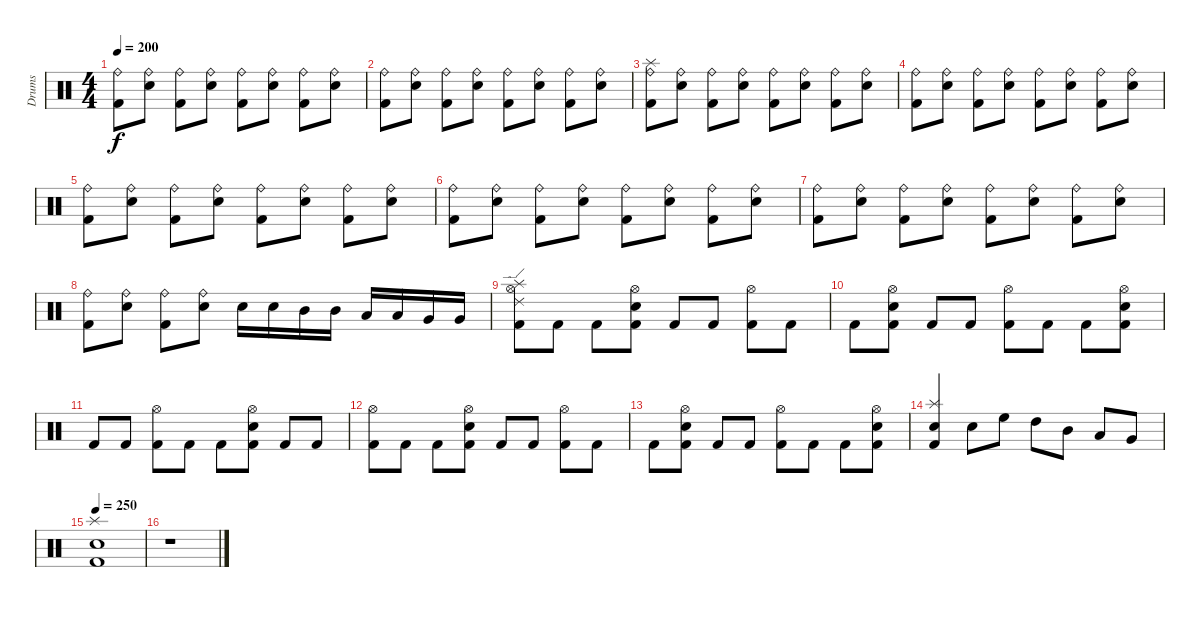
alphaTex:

\track ("Drums" "Drums") {instrument percussion}
\staff {score}
\articulation defaults
\ts (4 4)
\tempo 200
\clef neutral
\ks c
("Ride (bell)" "Kick (hit) 2").8{dy f} ("Ride (bell)" "Electric Snare (hit)").8 ("Ride (bell)" "Kick (hit) 2").8 ("Ride (bell)" "Electric Snare (hit)").8 ("Ride (bell)" "Kick (hit) 2").8 ("Ride (bell)" "Electric Snare (hit)").8 ("Ride (bell)" "Kick (hit) 2").8 ("Ride (bell)" "Electric Snare (hit)").8 |
("Ride (bell)" "Kick (hit) 2").8 ("Ride (bell)" "Electric Snare (hit)").8 ("Ride (bell)" "Kick (hit) 2").8 ("Ride (bell)" "Electric Snare (hit)").8 ("Ride (bell)" "Kick (hit) 2").8 ("Ride (bell)" "Electric Snare (hit)").8 ("Ride (bell)" "Kick (hit) 2").8 ("Ride (bell)" "Electric Snare (hit)").8 |
("Ride (bell)" "Splash (hit)" "Kick (hit) 2").8 ("Ride (bell)" "Electric Snare (hit)").8 ("Ride (bell)" "Kick (hit) 2").8 ("Ride (bell)" "Electric Snare (hit)").8 ("Ride (bell)" "Kick (hit) 2").8 ("Ride (bell)" "Electric Snare (hit)").8 ("Ride (bell)" "Kick (hit) 2").8 ("Ride (bell)" "Electric Snare (hit)").8 |
("Ride (bell)" "Kick (hit) 2").8 ("Ride (bell)" "Electric Snare (hit)").8 ("Ride (bell)" "Kick (hit) 2").8 ("Ride (bell)" "Electric Snare (hit)").8 ("Ride (bell)" "Kick (hit) 2").8 ("Ride (bell)" "Electric Snare (hit)").8 ("Ride (bell)" "Kick (hit) 2").8 ("Ride (bell)" "Electric Snare (hit)").8 |
("Ride (bell)" "Kick (hit) 2").8 ("Ride (bell)" "Electric Snare (hit)").8 ("Ride (bell)" "Kick (hit) 2").8 ("Ride (bell)" "Electric Snare (hit)").8 ("Ride (bell)" "Kick (hit) 2").8 ("Ride (bell)" "Electric Snare (hit)").8 ("Ride (bell)" "Kick (hit) 2").8 ("Ride (bell)" "Electric Snare (hit)").8 |
("Ride (bell)" "Kick (hit) 2").8 ("Ride (bell)" "Electric Snare (hit)").8 ("Ride (bell)" "Kick (hit) 2").8 ("Ride (bell)" "Electric Snare (hit)").8 ("Ride (bell)" "Kick (hit) 2").8 ("Ride (bell)" "Electric Snare (hit)").8 ("Ride (bell)" "Kick (hit) 2").8 ("Ride (bell)" "Electric Snare (hit)").8 |
("Ride (bell)" "Kick (hit) 2").8 ("Ride (bell)" "Electric Snare (hit)").8 ("Ride (bell)" "Kick (hit) 2").8 ("Ride (bell)" "Electric Snare (hit)").8 ("Ride (bell)" "Kick (hit) 2").8 ("Ride (bell)" "Electric Snare (hit)").8 ("Ride (bell)" "Kick (hit) 2").8 ("Ride (bell)" "Electric Snare (hit)").8 |
("Ride (bell)" "Kick (hit) 2").8 ("Ride (bell)" "Electric Snare (hit)").8 ("Ride (bell)" "Kick (hit) 2").8 ("Ride (bell)" "Electric Snare (hit)").8 "Electric Snare (hit)".16 "Electric Snare (hit)".16 "Mid Tom (hit)".16 "Mid Tom (hit)".16 "Low Tom (hit)".16 "Low Tom (hit)".16 "Very Low Tom (hit)".16 "Very Low Tom (hit)".16 |
("Kick (hit) 2" "Ride (edge) 2" "Splash (hit)" "Hi-Hat (open)").8 "Kick (hit) 2".8 "Kick (hit) 2".8 ("Kick (hit) 2" "Electric Snare (hit)" "Hi-Hat (open)").8 "Kick (hit) 2".8 "Kick (hit) 2".8 ("Kick (hit) 2" "Hi-Hat (open)").8 "Kick (hit) 2".8 |
"Kick (hit) 2".8 ("Kick (hit) 2" "Electric Snare (hit)" "Hi-Hat (open)").8 "Kick (hit) 2".8 "Kick (hit) 2".8 ("Kick (hit) 2" "Hi-Hat (open)").8 "Kick (hit) 2".8 "Kick (hit) 2".8 ("Kick (hit) 2" "Electric Snare (hit)" "Hi-Hat (open)").8 |
"Kick (hit) 2".8 "Kick (hit) 2".8 ("Kick (hit) 2" "Hi-Hat (open)").8 "Kick (hit) 2".8 "Kick (hit) 2".8 ("Kick (hit) 2" "Electric Snare (hit)" "Hi-Hat (open)").8 "Kick (hit) 2".8 "Kick (hit) 2".8 |
("Kick (hit) 2" "Hi-Hat (open)").8 "Kick (hit) 2".8 "Kick (hit) 2".8 ("Kick (hit) 2" "Electric Snare (hit)" "Hi-Hat (open)").8 "Kick (hit) 2".8 "Kick (hit) 2".8 ("Kick (hit) 2" "Hi-Hat (open)").8 "Kick (hit) 2".8 |
"Kick (hit) 2".8 ("Kick (hit) 2" "Electric Snare (hit)" "Hi-Hat (open)").8 "Kick (hit) 2".8 "Kick (hit) 2".8 ("Kick (hit) 2" "Hi-Hat (open)").8 "Kick (hit) 2".8 "Kick (hit) 2".8 ("Kick (hit) 2" "Electric Snare (hit)" "Hi-Hat (open)").8 |
("Kick (hit) 2" "Snare (hit) 2" "Splash (hit)").4 "Snare (hit) 2".8 "High Floor Tom (hit)".8 "High Tom (hit)".8 "Mid Tom (hit)".8 "Low Tom (hit)".8 "Very Low Tom (hit)".8 |
\tempo 250
("Splash (hit)" "Kick (hit) 2" "Electric Snare (hit)").1 |
r.1
